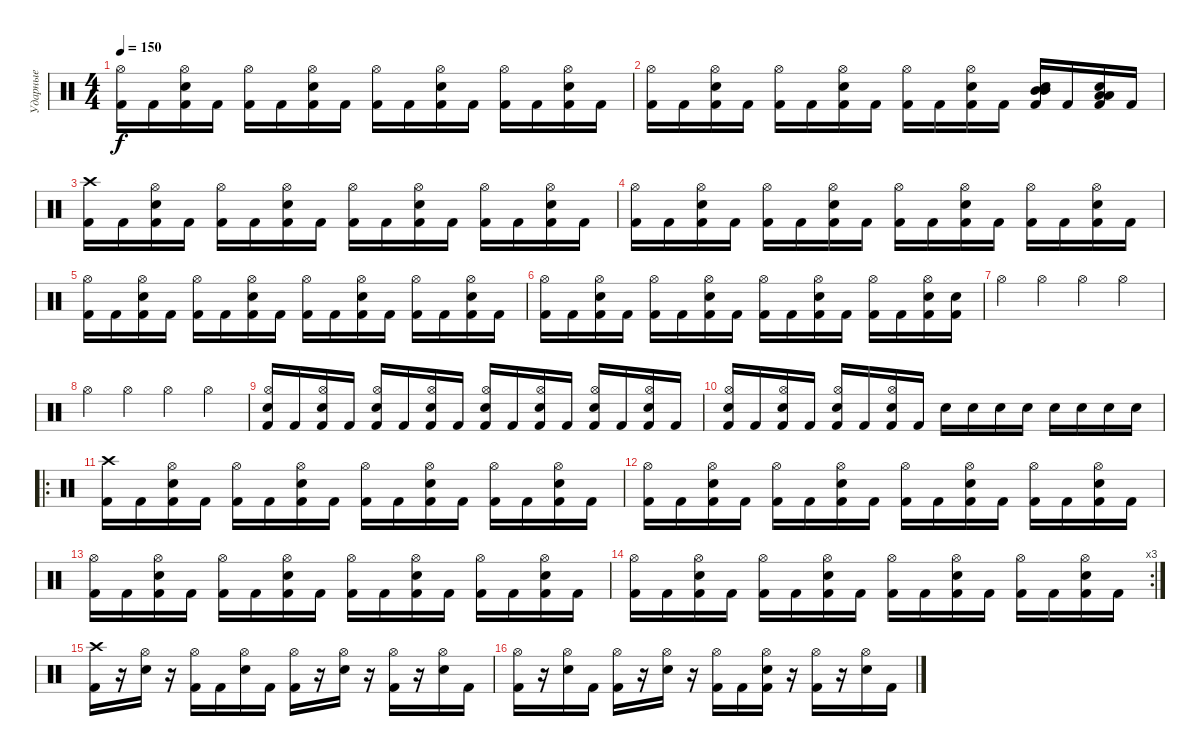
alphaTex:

\track ("Ударные" "Ударные") {instrument percussion}
\staff {score}
\articulation defaults
\ts (4 4)
\tempo 150
\clef neutral
\ks c
("Kick (hit) 2" "Hi-Hat (open)").16{dy f} "Kick (hit) 2".16 ("Kick (hit) 2" "Electric Snare (hit)" "Hi-Hat (open)").16 "Kick (hit) 2".16 ("Kick (hit) 2" "Hi-Hat (open)").16 "Kick (hit) 2".16 ("Kick (hit) 2" "Electric Snare (hit)" "Hi-Hat (open)").16 "Kick (hit) 2".16 ("Kick (hit) 2" "Hi-Hat (open)").16 "Kick (hit) 2".16 ("Kick (hit) 2" "Electric Snare (hit)" "Hi-Hat (open)").16 "Kick (hit) 2".16 ("Kick (hit) 2" "Hi-Hat (open)").16 "Kick (hit) 2".16 ("Kick (hit) 2" "Electric Snare (hit)" "Hi-Hat (open)").16 "Kick (hit) 2".16 |
("Kick (hit) 2" "Hi-Hat (open)").16 "Kick (hit) 2".16 ("Kick (hit) 2" "Electric Snare (hit)" "Hi-Hat (open)").16 "Kick (hit) 2".16 ("Kick (hit) 2" "Hi-Hat (open)").16 "Kick (hit) 2".16 ("Kick (hit) 2" "Electric Snare (hit)" "Hi-Hat (open)").16 "Kick (hit) 2".16 ("Kick (hit) 2" "Hi-Hat (open)").16 "Kick (hit) 2".16 ("Kick (hit) 2" "Electric Snare (hit)" "Hi-Hat (open)").16 "Kick (hit) 2".16 ("Kick (hit) 2" "Electric Snare (hit)" "Mid Tom (hit)" "Mid Tom (hit)").16 "Kick (hit) 2".16 ("Kick (hit) 2" "Electric Snare (hit)" "Low Tom (hit)" "Low Tom (hit)").16 "Kick (hit) 2".16 |
("Kick (hit) 2" "Crash high (hit)").16 "Kick (hit) 2".16 ("Kick (hit) 2" "Electric Snare (hit)" "Hi-Hat (open)").16 "Kick (hit) 2".16 ("Kick (hit) 2" "Hi-Hat (open)").16 "Kick (hit) 2".16 ("Kick (hit) 2" "Electric Snare (hit)" "Hi-Hat (open)").16 "Kick (hit) 2".16 ("Kick (hit) 2" "Hi-Hat (open)").16 "Kick (hit) 2".16 ("Kick (hit) 2" "Electric Snare (hit)" "Hi-Hat (open)").16 "Kick (hit) 2".16 ("Kick (hit) 2" "Hi-Hat (open)").16 "Kick (hit) 2".16 ("Kick (hit) 2" "Electric Snare (hit)" "Hi-Hat (open)").16 "Kick (hit) 2".16 |
("Kick (hit) 2" "Hi-Hat (open)").16 "Kick (hit) 2".16 ("Kick (hit) 2" "Electric Snare (hit)" "Hi-Hat (open)").16 "Kick (hit) 2".16 ("Kick (hit) 2" "Hi-Hat (open)").16 "Kick (hit) 2".16 ("Kick (hit) 2" "Electric Snare (hit)" "Hi-Hat (open)").16 "Kick (hit) 2".16 ("Kick (hit) 2" "Hi-Hat (open)").16 "Kick (hit) 2".16 ("Kick (hit) 2" "Electric Snare (hit)" "Hi-Hat (open)").16 "Kick (hit) 2".16 ("Kick (hit) 2" "Hi-Hat (open)").16 "Kick (hit) 2".16 ("Kick (hit) 2" "Electric Snare (hit)" "Hi-Hat (open)").16 "Kick (hit) 2".16 |
("Kick (hit) 2" "Hi-Hat (open)").16 "Kick (hit) 2".16 ("Kick (hit) 2" "Electric Snare (hit)" "Hi-Hat (open)").16 "Kick (hit) 2".16 ("Kick (hit) 2" "Hi-Hat (open)").16 "Kick (hit) 2".16 ("Kick (hit) 2" "Electric Snare (hit)" "Hi-Hat (open)").16 "Kick (hit) 2".16 ("Kick (hit) 2" "Hi-Hat (open)").16 "Kick (hit) 2".16 ("Kick (hit) 2" "Electric Snare (hit)" "Hi-Hat (open)").16 "Kick (hit) 2".16 ("Kick (hit) 2" "Hi-Hat (open)").16 "Kick (hit) 2".16 ("Kick (hit) 2" "Electric Snare (hit)" "Hi-Hat (open)").16 "Kick (hit) 2".16 |
("Kick (hit) 2" "Hi-Hat (open)").16 "Kick (hit) 2".16 ("Kick (hit) 2" "Electric Snare (hit)" "Hi-Hat (open)").16 "Kick (hit) 2".16 ("Kick (hit) 2" "Hi-Hat (open)").16 "Kick (hit) 2".16 ("Kick (hit) 2" "Electric Snare (hit)" "Hi-Hat (open)").16 "Kick (hit) 2".16 ("Kick (hit) 2" "Hi-Hat (open)").16 "Kick (hit) 2".16 ("Kick (hit) 2" "Electric Snare (hit)" "Hi-Hat (open)").16 "Kick (hit) 2".16 ("Kick (hit) 2" "Hi-Hat (open)").16 "Kick (hit) 2".16 ("Kick (hit) 2" "Electric Snare (hit)" "Hi-Hat (open)").16 ("Kick (hit) 2" "Electric Snare (hit)").16 |
"Hi-Hat (open)".4 "Hi-Hat (open)".4 "Hi-Hat (open)".4 "Hi-Hat (open)".4 |
"Hi-Hat (open)".4 "Hi-Hat (open)".4 "Hi-Hat (open)".4 "Hi-Hat (open)".4 |
("Hi-Hat (open)" "Kick (hit) 2" "Electric Snare (hit)").16 "Kick (hit) 2".16 ("Hi-Hat (open)" "Kick (hit) 2" "Electric Snare (hit)").16 "Kick (hit) 2".16 ("Hi-Hat (open)" "Kick (hit) 2" "Electric Snare (hit)").16 "Kick (hit) 2".16 ("Hi-Hat (open)" "Kick (hit) 2" "Electric Snare (hit)").16 "Kick (hit) 2".16 ("Hi-Hat (open)" "Kick (hit) 2" "Electric Snare (hit)").16 "Kick (hit) 2".16 ("Hi-Hat (open)" "Kick (hit) 2" "Electric Snare (hit)").16 "Kick (hit) 2".16 ("Hi-Hat (open)" "Kick (hit) 2" "Electric Snare (hit)").16 "Kick (hit) 2".16 ("Hi-Hat (open)" "Kick (hit) 2" "Electric Snare (hit)").16 "Kick (hit) 2".16 |
("Hi-Hat (open)" "Kick (hit) 2" "Electric Snare (hit)").16 "Kick (hit) 2".16 ("Hi-Hat (open)" "Kick (hit) 2" "Electric Snare (hit)").16 "Kick (hit) 2".16 ("Hi-Hat (open)" "Kick (hit) 2" "Electric Snare (hit)").16 "Kick (hit) 2".16 ("Hi-Hat (open)" "Kick (hit) 2" "Electric Snare (hit)").16 "Kick (hit) 2".16 "Electric Snare (hit)".16 "Electric Snare (hit)".16 "Electric Snare (hit)".16 "Electric Snare (hit)".16 "Electric Snare (hit)".16 "Electric Snare (hit)".16 "Electric Snare (hit)".16 "Electric Snare (hit)".16 |
\ro
("Kick (hit) 2" "Crash high (hit)").16 "Kick (hit) 2".16 ("Kick (hit) 2" "Electric Snare (hit)" "Hi-Hat (open)").16 "Kick (hit) 2".16 ("Kick (hit) 2" "Hi-Hat (open)").16 "Kick (hit) 2".16 ("Kick (hit) 2" "Electric Snare (hit)" "Hi-Hat (open)").16 "Kick (hit) 2".16 ("Kick (hit) 2" "Hi-Hat (open)").16 "Kick (hit) 2".16 ("Kick (hit) 2" "Electric Snare (hit)" "Hi-Hat (open)").16 "Kick (hit) 2".16 ("Kick (hit) 2" "Hi-Hat (open)").16 "Kick (hit) 2".16 ("Kick (hit) 2" "Electric Snare (hit)" "Hi-Hat (open)").16 "Kick (hit) 2".16 |
("Kick (hit) 2" "Hi-Hat (open)").16 "Kick (hit) 2".16 ("Kick (hit) 2" "Electric Snare (hit)" "Hi-Hat (open)").16 "Kick (hit) 2".16 ("Kick (hit) 2" "Hi-Hat (open)").16 "Kick (hit) 2".16 ("Kick (hit) 2" "Electric Snare (hit)" "Hi-Hat (open)").16 "Kick (hit) 2".16 ("Kick (hit) 2" "Hi-Hat (open)").16 "Kick (hit) 2".16 ("Kick (hit) 2" "Electric Snare (hit)" "Hi-Hat (open)").16 "Kick (hit) 2".16 ("Kick (hit) 2" "Hi-Hat (open)").16 "Kick (hit) 2".16 ("Kick (hit) 2" "Electric Snare (hit)" "Hi-Hat (open)").16 "Kick (hit) 2".16 |
("Kick (hit) 2" "Hi-Hat (open)").16 "Kick (hit) 2".16 ("Kick (hit) 2" "Electric Snare (hit)" "Hi-Hat (open)").16 "Kick (hit) 2".16 ("Kick (hit) 2" "Hi-Hat (open)").16 "Kick (hit) 2".16 ("Kick (hit) 2" "Electric Snare (hit)" "Hi-Hat (open)").16 "Kick (hit) 2".16 ("Kick (hit) 2" "Hi-Hat (open)").16 "Kick (hit) 2".16 ("Kick (hit) 2" "Electric Snare (hit)" "Hi-Hat (open)").16 "Kick (hit) 2".16 ("Kick (hit) 2" "Hi-Hat (open)").16 "Kick (hit) 2".16 ("Kick (hit) 2" "Electric Snare (hit)" "Hi-Hat (open)").16 "Kick (hit) 2".16 |
\rc 3
("Kick (hit) 2" "Hi-Hat (open)").16 "Kick (hit) 2".16 ("Kick (hit) 2" "Electric Snare (hit)" "Hi-Hat (open)").16 "Kick (hit) 2".16 ("Kick (hit) 2" "Hi-Hat (open)").16 "Kick (hit) 2".16 ("Kick (hit) 2" "Electric Snare (hit)" "Hi-Hat (open)").16 "Kick (hit) 2".16 ("Kick (hit) 2" "Hi-Hat (open)").16 "Kick (hit) 2".16 ("Kick (hit) 2" "Electric Snare (hit)" "Hi-Hat (open)").16 "Kick (hit) 2".16 ("Kick (hit) 2" "Hi-Hat (open)").16 "Kick (hit) 2".16 ("Kick (hit) 2" "Electric Snare (hit)" "Hi-Hat (open)").16 "Kick (hit) 2".16 |
("Kick (hit) 2" "Crash high (hit)").16 r.16 ("Electric Snare (hit)" "Hi-Hat (open)").16 r.16 ("Kick (hit) 2" "Hi-Hat (open)").16 "Kick (hit) 2".16 ("Electric Snare (hit)" "Hi-Hat (open)").16 "Kick (hit) 2".16 ("Kick (hit) 2" "Hi-Hat (open)").16 r.16 ("Electric Snare (hit)" "Hi-Hat (open)").16 r.16 ("Kick (hit) 2" "Hi-Hat (open)").16 r.16 ("Electric Snare (hit)" "Hi-Hat (open)").16 "Kick (hit) 2".16 |
("Kick (hit) 2" "Hi-Hat (open)").16 r.16 ("Electric Snare (hit)" "Hi-Hat (open)").16 "Kick (hit) 2".16 ("Kick (hit) 2" "Hi-Hat (open)").16 r.16 ("Electric Snare (hit)" "Hi-Hat (open)").16 r.16 ("Kick (hit) 2" "Hi-Hat (open)").16 "Kick (hit) 2".16 ("Kick (hit) 2" "Electric Snare (hit)" "Hi-Hat (open)").16 r.16 ("Kick (hit) 2" "Hi-Hat (open)").16 r.16 ("Electric Snare (hit)" "Hi-Hat (open)").16 "Kick (hit) 2".16
